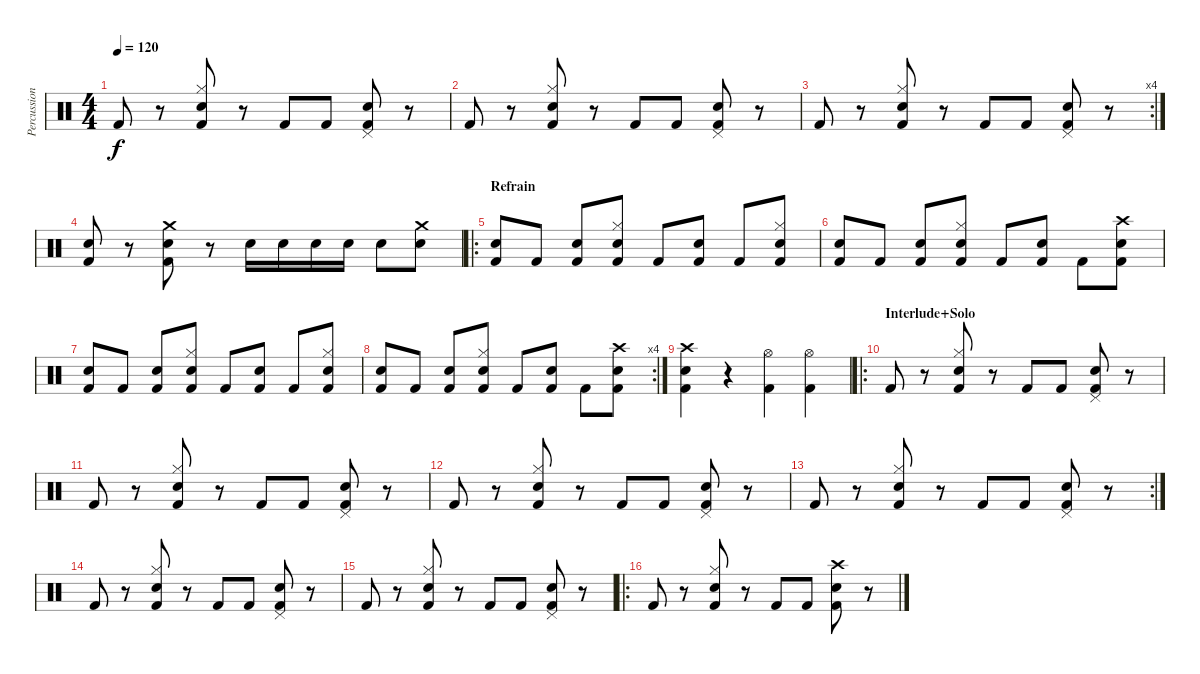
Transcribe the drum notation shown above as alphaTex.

\track ("Percussions" "Percussion") {instrument percussion}
\staff {score}
\articulation defaults
\ts (4 4)
\tempo 120
\clef neutral
\ks c "Kick (hit) 2".8{dy f}
r.8 ("Hi-Hat (closed)" "Snare (hit) 2" "Kick (hit) 2").8 r.8 "Kick (hit) 2".8 "Kick (hit) 2".8 ("Snare (hit) 2" "Pedal Hi-Hat (hit)" "Kick (hit) 2").8 r.8 |
"Kick (hit) 2".8 r.8 ("Hi-Hat (closed)" "Snare (hit) 2" "Kick (hit) 2").8 r.8 "Kick (hit) 2".8 "Kick (hit) 2".8 ("Snare (hit) 2" "Pedal Hi-Hat (hit)" "Kick (hit) 2").8 r.8 |
\rc 4 "Kick (hit) 2".8
r.8 ("Hi-Hat (closed)" "Snare (hit) 2" "Kick (hit) 2").8 r.8 "Kick (hit) 2".8 "Kick (hit) 2".8 ("Snare (hit) 2" "Pedal Hi-Hat (hit)" "Kick (hit) 2").8 r.8 |
("Kick (hit) 2" "Snare (hit) 2").8 r.8 ("Crash medium (hit)" "Snare (hit) 2" "Kick (hit) 2").8 r.8 "Snare (hit) 2".16 "Snare (hit) 2".16 "Snare (hit) 2".16 "Snare (hit) 2".16 "Snare (hit) 2".8 ("Crash medium (hit)" "Snare (hit) 2").8 |
\ro
\section ("" "Refrain")
("Kick (hit) 2" "Snare (hit) 2").8 "Kick (hit) 2".8 ("Kick (hit) 2" "Snare (hit) 2").8 ("Hi-Hat (closed)" "Snare (hit) 2" "Kick (hit) 2").8 "Kick (hit) 2".8 ("Kick (hit) 2" "Snare (hit) 2").8 "Kick (hit) 2".8 ("Snare (hit) 2" "Hi-Hat (closed)" "Kick (hit) 2").8 |
("Kick (hit) 2" "Snare (hit) 2").8 "Kick (hit) 2".8 ("Kick (hit) 2" "Snare (hit) 2").8 ("Hi-Hat (closed)" "Snare (hit) 2" "Kick (hit) 2").8 "Kick (hit) 2".8 ("Kick (hit) 2" "Snare (hit) 2").8 "Kick (hit) 2".8 ("Snare (hit) 2" "Crash high (hit)" "Kick (hit) 2").8 |
("Kick (hit) 2" "Snare (hit) 2").8 "Kick (hit) 2".8 ("Kick (hit) 2" "Snare (hit) 2").8 ("Hi-Hat (closed)" "Snare (hit) 2" "Kick (hit) 2").8 "Kick (hit) 2".8 ("Kick (hit) 2" "Snare (hit) 2").8 "Kick (hit) 2".8 ("Snare (hit) 2" "Hi-Hat (closed)" "Kick (hit) 2").8 |
\rc 4
("Kick (hit) 2" "Snare (hit) 2").8 "Kick (hit) 2".8 ("Kick (hit) 2" "Snare (hit) 2").8 ("Hi-Hat (closed)" "Snare (hit) 2" "Kick (hit) 2").8 "Kick (hit) 2".8 ("Kick (hit) 2" "Snare (hit) 2").8 "Kick (hit) 2".8 ("Snare (hit) 2" "Crash high (hit)" "Kick (hit) 2").8 |
("Snare (hit) 2" "Kick (hit) 2" "Crash high (hit)").4 r.4 ("Hi-Hat (open)" "Kick (hit) 2").4 ("Hi-Hat (open)" "Kick (hit) 2").4 |
\ro
\section ("" "Interlude+Solo")
"Kick (hit) 2".8 r.8 ("Hi-Hat (closed)" "Snare (hit) 2" "Kick (hit) 2").8 r.8 "Kick (hit) 2".8 "Kick (hit) 2".8 ("Snare (hit) 2" "Pedal Hi-Hat (hit)" "Kick (hit) 2").8 r.8 |
"Kick (hit) 2".8 r.8 ("Hi-Hat (closed)" "Snare (hit) 2" "Kick (hit) 2").8 r.8 "Kick (hit) 2".8 "Kick (hit) 2".8 ("Snare (hit) 2" "Pedal Hi-Hat (hit)" "Kick (hit) 2").8 r.8 |
"Kick (hit) 2".8 r.8 ("Hi-Hat (closed)" "Snare (hit) 2" "Kick (hit) 2").8 r.8 "Kick (hit) 2".8 "Kick (hit) 2".8 ("Snare (hit) 2" "Pedal Hi-Hat (hit)" "Kick (hit) 2").8 r.8 |
\rc 2 "Kick (hit) 2".8
r.8 ("Hi-Hat (closed)" "Snare (hit) 2" "Kick (hit) 2").8 r.8 "Kick (hit) 2".8 "Kick (hit) 2".8 ("Snare (hit) 2" "Pedal Hi-Hat (hit)" "Kick (hit) 2").8 r.8 |
"Kick (hit) 2".8 r.8 ("Hi-Hat (closed)" "Snare (hit) 2" "Kick (hit) 2").8 r.8 "Kick (hit) 2".8 "Kick (hit) 2".8 ("Snare (hit) 2" "Pedal Hi-Hat (hit)" "Kick (hit) 2").8 r.8 |
"Kick (hit) 2".8 r.8 ("Hi-Hat (closed)" "Snare (hit) 2" "Kick (hit) 2").8 r.8 "Kick (hit) 2".8 "Kick (hit) 2".8 ("Snare (hit) 2" "Pedal Hi-Hat (hit)" "Kick (hit) 2").8 r.8 |
\ro "Kick (hit) 2".8
r.8 ("Hi-Hat (closed)" "Snare (hit) 2" "Kick (hit) 2").8 r.8 "Kick (hit) 2".8 "Kick (hit) 2".8 ("Snare (hit) 2" "Crash high (hit)" "Kick (hit) 2").8 r.8
